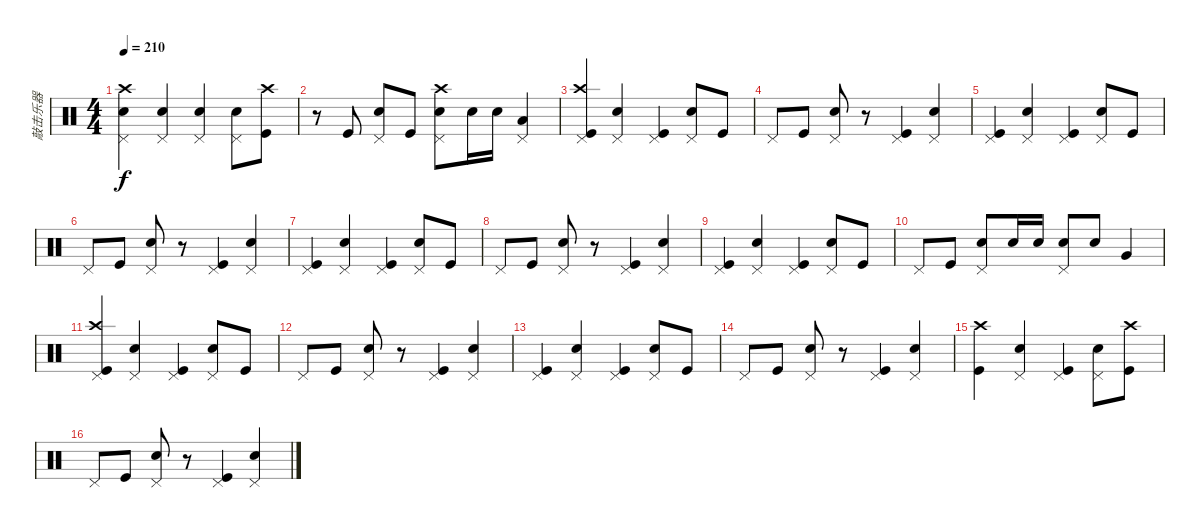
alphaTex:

\track ("敲击乐器" "敲击乐器") {instrument percussion}
\staff {score}
\articulation defaults
\ts (4 4)
\tempo 210
\clef neutral
\ks c
("Snare (hit) 2" "Pedal Hi-Hat (hit)" "Crash high (hit)").4{dy f} ("Pedal Hi-Hat (hit)" "Snare (hit) 2").4 ("Pedal Hi-Hat (hit)" "Snare (hit) 2").4 ("Pedal Hi-Hat (hit)" "Snare (hit) 2").8 ("Crash high (hit)" "Kick (hit)").8 |
r.8 "Kick (hit)".8 ("Pedal Hi-Hat (hit)" "Snare (hit) 2").8 "Kick (hit)".8 ("Crash high (hit)" "Pedal Hi-Hat (hit)" "Snare (hit) 2").8 "Snare (hit) 2".16 "Snare (hit) 2".16 ("Low Floor Tom (hit)" "Pedal Hi-Hat (hit)").4 |
("Crash high (hit)" "Pedal Hi-Hat (hit)" "Kick (hit)").4 ("Pedal Hi-Hat (hit)" "Snare (hit) 2").4 ("Pedal Hi-Hat (hit)" "Kick (hit)").4 ("Pedal Hi-Hat (hit)" "Snare (hit) 2").8 "Kick (hit)".8 |
"Pedal Hi-Hat (hit)".8 "Kick (hit)".8 ("Pedal Hi-Hat (hit)" "Snare (hit) 2").8 r.8 ("Kick (hit)" "Pedal Hi-Hat (hit)").4 ("Snare (hit) 2" "Pedal Hi-Hat (hit)").4 |
("Pedal Hi-Hat (hit)" "Kick (hit)").4 ("Pedal Hi-Hat (hit)" "Snare (hit) 2").4 ("Pedal Hi-Hat (hit)" "Kick (hit)").4 ("Pedal Hi-Hat (hit)" "Snare (hit) 2").8 "Kick (hit)".8 |
"Pedal Hi-Hat (hit)".8 "Kick (hit)".8 ("Pedal Hi-Hat (hit)" "Snare (hit) 2").8 r.8 ("Kick (hit)" "Pedal Hi-Hat (hit)").4 ("Snare (hit) 2" "Pedal Hi-Hat (hit)").4 |
("Pedal Hi-Hat (hit)" "Kick (hit)").4 ("Pedal Hi-Hat (hit)" "Snare (hit) 2").4 ("Pedal Hi-Hat (hit)" "Kick (hit)").4 ("Pedal Hi-Hat (hit)" "Snare (hit) 2").8 "Kick (hit)".8 |
"Pedal Hi-Hat (hit)".8 "Kick (hit)".8 ("Pedal Hi-Hat (hit)" "Snare (hit) 2").8 r.8 ("Kick (hit)" "Pedal Hi-Hat (hit)").4 ("Snare (hit) 2" "Pedal Hi-Hat (hit)").4 |
("Pedal Hi-Hat (hit)" "Kick (hit)").4 ("Pedal Hi-Hat (hit)" "Snare (hit) 2").4 ("Pedal Hi-Hat (hit)" "Kick (hit)").4 ("Pedal Hi-Hat (hit)" "Snare (hit) 2").8 "Kick (hit)".8 |
"Pedal Hi-Hat (hit)".8 "Kick (hit)".8 ("Pedal Hi-Hat (hit)" "Snare (hit) 2").8 "Snare (hit) 2".16 "Snare (hit) 2".16 ("Pedal Hi-Hat (hit)" "Snare (hit) 2").8 "Snare (hit) 2".8 "Very Low Tom (hit)".4 |
("Crash high (hit)" "Pedal Hi-Hat (hit)" "Kick (hit)").4 ("Pedal Hi-Hat (hit)" "Snare (hit) 2").4 ("Pedal Hi-Hat (hit)" "Kick (hit)").4 ("Pedal Hi-Hat (hit)" "Snare (hit) 2").8 "Kick (hit)".8 |
"Pedal Hi-Hat (hit)".8 "Kick (hit)".8 ("Pedal Hi-Hat (hit)" "Snare (hit) 2").8 r.8 ("Kick (hit)" "Pedal Hi-Hat (hit)").4 ("Snare (hit) 2" "Pedal Hi-Hat (hit)").4 |
("Pedal Hi-Hat (hit)" "Kick (hit)").4 ("Pedal Hi-Hat (hit)" "Snare (hit) 2").4 ("Pedal Hi-Hat (hit)" "Kick (hit)").4 ("Pedal Hi-Hat (hit)" "Snare (hit) 2").8 "Kick (hit)".8 |
"Pedal Hi-Hat (hit)".8 "Kick (hit)".8 ("Pedal Hi-Hat (hit)" "Snare (hit) 2").8 r.8 ("Kick (hit)" "Pedal Hi-Hat (hit)").4 ("Snare (hit) 2" "Pedal Hi-Hat (hit)").4 |
("Crash high (hit)" "Kick (hit)").4 ("Pedal Hi-Hat (hit)" "Snare (hit) 2").4 ("Pedal Hi-Hat (hit)" "Kick (hit)").4 ("Pedal Hi-Hat (hit)" "Snare (hit) 2").8 ("Crash high (hit)" "Kick (hit)").8 |
"Pedal Hi-Hat (hit)".8 "Kick (hit)".8 ("Pedal Hi-Hat (hit)" "Snare (hit) 2").8 r.8 ("Kick (hit)" "Pedal Hi-Hat (hit)").4 ("Snare (hit) 2" "Pedal Hi-Hat (hit)").4
